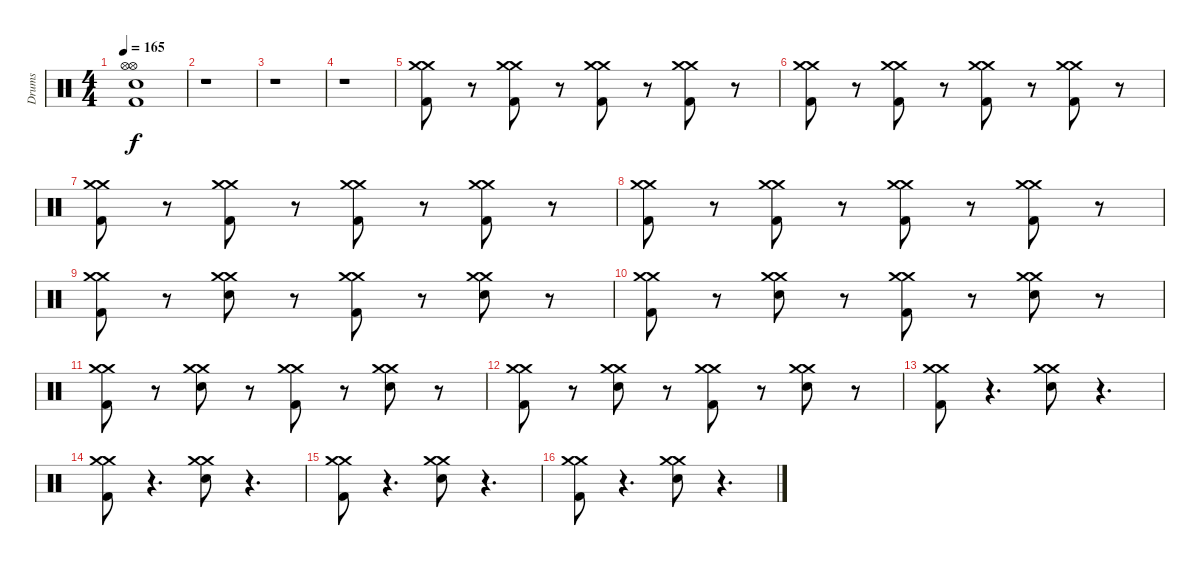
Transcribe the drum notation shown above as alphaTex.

\track ("Drums" "Drums") {instrument percussion}
\staff {score}
\articulation defaults
\ts (4 4)
\tempo 165
\clef neutral
\ks c
("Hi-Hat (open)" "Hi-Hat (open)" "Electric Snare (hit)" "Kick (hit) 2").1{dy f} |
r.1 |
r.1 |
r.1 |
("Crash medium (hit)" "Crash medium (hit)" "Kick (hit) 2").8 r.8 ("Crash medium (hit)" "Crash medium (hit)" "Kick (hit) 2").8 r.8 ("Crash medium (hit)" "Crash medium (hit)" "Kick (hit) 2").8 r.8 ("Crash medium (hit)" "Crash medium (hit)" "Kick (hit) 2").8 r.8 |
("Crash medium (hit)" "Crash medium (hit)" "Kick (hit) 2").8 r.8 ("Crash medium (hit)" "Crash medium (hit)" "Kick (hit) 2").8 r.8 ("Crash medium (hit)" "Crash medium (hit)" "Kick (hit) 2").8 r.8 ("Crash medium (hit)" "Crash medium (hit)" "Kick (hit) 2").8 r.8 |
("Crash medium (hit)" "Crash medium (hit)" "Kick (hit) 2").8 r.8 ("Crash medium (hit)" "Crash medium (hit)" "Kick (hit) 2").8 r.8 ("Crash medium (hit)" "Crash medium (hit)" "Kick (hit) 2").8 r.8 ("Crash medium (hit)" "Crash medium (hit)" "Kick (hit) 2").8 r.8 |
("Crash medium (hit)" "Crash medium (hit)" "Kick (hit) 2").8 r.8 ("Crash medium (hit)" "Crash medium (hit)" "Kick (hit) 2").8 r.8 ("Crash medium (hit)" "Crash medium (hit)" "Kick (hit) 2").8 r.8 ("Crash medium (hit)" "Crash medium (hit)" "Kick (hit) 2").8 r.8 |
("Crash medium (hit)" "Crash medium (hit)" "Kick (hit) 2").8 r.8 ("Crash medium (hit)" "Crash medium (hit)" "Electric Snare (hit)").8 r.8 ("Crash medium (hit)" "Crash medium (hit)" "Kick (hit) 2").8 r.8 ("Crash medium (hit)" "Crash medium (hit)" "Electric Snare (hit)").8 r.8 |
("Crash medium (hit)" "Crash medium (hit)" "Kick (hit) 2").8 r.8 ("Crash medium (hit)" "Crash medium (hit)" "Electric Snare (hit)").8 r.8 ("Crash medium (hit)" "Crash medium (hit)" "Kick (hit) 2").8 r.8 ("Crash medium (hit)" "Crash medium (hit)" "Electric Snare (hit)").8 r.8 |
("Crash medium (hit)" "Crash medium (hit)" "Kick (hit) 2").8 r.8 ("Crash medium (hit)" "Crash medium (hit)" "Electric Snare (hit)").8 r.8 ("Crash medium (hit)" "Crash medium (hit)" "Kick (hit) 2").8 r.8 ("Crash medium (hit)" "Crash medium (hit)" "Electric Snare (hit)").8 r.8 |
("Crash medium (hit)" "Crash medium (hit)" "Kick (hit) 2").8 r.8 ("Crash medium (hit)" "Crash medium (hit)" "Electric Snare (hit)").8 r.8 ("Crash medium (hit)" "Crash medium (hit)" "Kick (hit) 2").8 r.8 ("Crash medium (hit)" "Crash medium (hit)" "Electric Snare (hit)").8 r.8 |
("Crash medium (hit)" "Crash medium (hit)" "Kick (hit) 2").8 r.4{d} ("Crash medium (hit)" "Crash medium (hit)" "Electric Snare (hit)").8 r.4{d} |
("Crash medium (hit)" "Crash medium (hit)" "Kick (hit) 2").8 r.4{d} ("Crash medium (hit)" "Crash medium (hit)" "Electric Snare (hit)").8 r.4{d} |
("Crash medium (hit)" "Crash medium (hit)" "Kick (hit) 2").8 r.4{d} ("Crash medium (hit)" "Crash medium (hit)" "Electric Snare (hit)").8 r.4{d} |
("Crash medium (hit)" "Crash medium (hit)" "Kick (hit) 2").8 r.4{d} ("Crash medium (hit)" "Crash medium (hit)" "Electric Snare (hit)").8 r.4{d}
